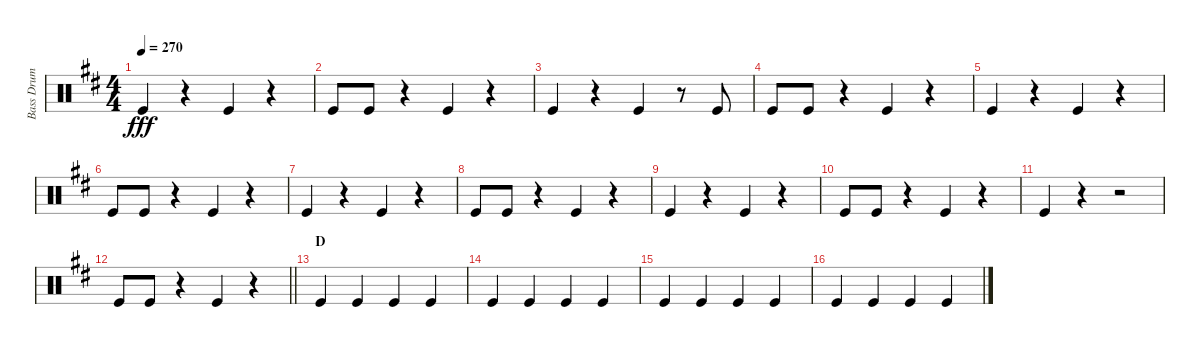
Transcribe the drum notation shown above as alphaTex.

\track ("Bass Drum" "Bass Drum") {instrument percussion}
\staff {score}
\articulation defaults
\ts (4 4)
\tempo 270
\clef neutral
\ks d "Kick (hit)".4{dy fff}
r.4 "Kick (hit)".4 r.4 |
"Kick (hit)".8 "Kick (hit)".8 r.4 "Kick (hit)".4 r.4 |
"Kick (hit)".4 r.4 "Kick (hit)".4 r.8 "Kick (hit)".8 |
"Kick (hit)".8 "Kick (hit)".8 r.4 "Kick (hit)".4 r.4 |
"Kick (hit)".4 r.4 "Kick (hit)".4 r.4 |
"Kick (hit)".8 "Kick (hit)".8 r.4 "Kick (hit)".4 r.4 |
"Kick (hit)".4 r.4 "Kick (hit)".4 r.4 |
"Kick (hit)".8 "Kick (hit)".8 r.4 "Kick (hit)".4 r.4 |
"Kick (hit)".4 r.4 "Kick (hit)".4 r.4 |
"Kick (hit)".8 "Kick (hit)".8 r.4 "Kick (hit)".4 r.4 |
"Kick (hit)".4 r.4 r.2 |
\barLineRight lightlight "Kick (hit)".8 "Kick (hit)".8
r.4 "Kick (hit)".4 r.4 |
\section ("" "D")
"Kick (hit)".4 "Kick (hit)".4 "Kick (hit)".4 "Kick (hit)".4 |
"Kick (hit)".4 "Kick (hit)".4 "Kick (hit)".4 "Kick (hit)".4 |
"Kick (hit)".4 "Kick (hit)".4 "Kick (hit)".4 "Kick (hit)".4 |
"Kick (hit)".4 "Kick (hit)".4 "Kick (hit)".4 "Kick (hit)".4
